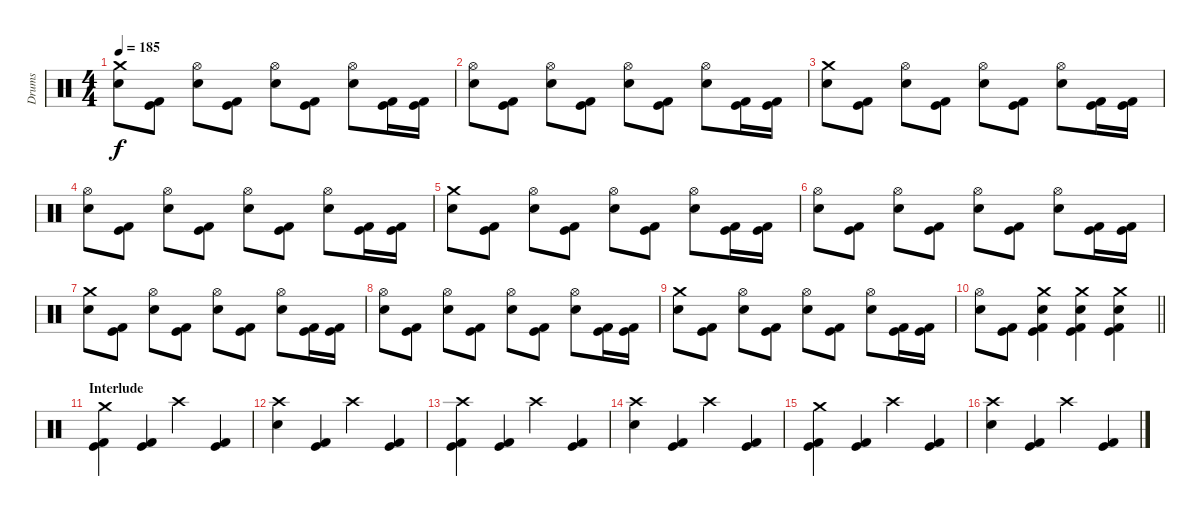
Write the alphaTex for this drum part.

\track ("Drums" "Drums") {instrument percussion}
\staff {score}
\articulation defaults
\ts (4 4)
\tempo 185
\clef neutral
\ks c
("Crash medium (hit)" "Electric Snare (hit)").8{dy f} ("Kick (hit) 2" "Kick (hit)").8 ("Hi-Hat (open)" "Electric Snare (hit)").8 ("Kick (hit) 2" "Kick (hit)").8 ("Hi-Hat (open)" "Electric Snare (hit)").8 ("Kick (hit) 2" "Kick (hit)").8 ("Hi-Hat (open)" "Electric Snare (hit)").8 ("Kick (hit) 2" "Kick (hit)").16 ("Kick (hit) 2" "Kick (hit)").16 |
("Hi-Hat (open)" "Electric Snare (hit)").8 ("Kick (hit) 2" "Kick (hit)").8 ("Hi-Hat (open)" "Electric Snare (hit)").8 ("Kick (hit) 2" "Kick (hit)").8 ("Hi-Hat (open)" "Electric Snare (hit)").8 ("Kick (hit) 2" "Kick (hit)").8 ("Hi-Hat (open)" "Electric Snare (hit)").8 ("Kick (hit) 2" "Kick (hit)").16 ("Kick (hit) 2" "Kick (hit)").16 |
("Crash medium (hit)" "Electric Snare (hit)").8 ("Kick (hit) 2" "Kick (hit)").8 ("Hi-Hat (open)" "Electric Snare (hit)").8 ("Kick (hit) 2" "Kick (hit)").8 ("Hi-Hat (open)" "Electric Snare (hit)").8 ("Kick (hit) 2" "Kick (hit)").8 ("Hi-Hat (open)" "Electric Snare (hit)").8 ("Kick (hit) 2" "Kick (hit)").16 ("Kick (hit) 2" "Kick (hit)").16 |
("Hi-Hat (open)" "Electric Snare (hit)").8 ("Kick (hit) 2" "Kick (hit)").8 ("Hi-Hat (open)" "Electric Snare (hit)").8 ("Kick (hit) 2" "Kick (hit)").8 ("Hi-Hat (open)" "Electric Snare (hit)").8 ("Kick (hit) 2" "Kick (hit)").8 ("Hi-Hat (open)" "Electric Snare (hit)").8 ("Kick (hit) 2" "Kick (hit)").16 ("Kick (hit) 2" "Kick (hit)").16 |
("Crash medium (hit)" "Electric Snare (hit)").8 ("Kick (hit) 2" "Kick (hit)").8 ("Hi-Hat (open)" "Electric Snare (hit)").8 ("Kick (hit) 2" "Kick (hit)").8 ("Hi-Hat (open)" "Electric Snare (hit)").8 ("Kick (hit) 2" "Kick (hit)").8 ("Hi-Hat (open)" "Electric Snare (hit)").8 ("Kick (hit) 2" "Kick (hit)").16 ("Kick (hit) 2" "Kick (hit)").16 |
("Hi-Hat (open)" "Electric Snare (hit)").8 ("Kick (hit) 2" "Kick (hit)").8 ("Hi-Hat (open)" "Electric Snare (hit)").8 ("Kick (hit) 2" "Kick (hit)").8 ("Hi-Hat (open)" "Electric Snare (hit)").8 ("Kick (hit) 2" "Kick (hit)").8 ("Hi-Hat (open)" "Electric Snare (hit)").8 ("Kick (hit) 2" "Kick (hit)").16 ("Kick (hit) 2" "Kick (hit)").16 |
("Crash medium (hit)" "Electric Snare (hit)").8 ("Kick (hit) 2" "Kick (hit)").8 ("Hi-Hat (open)" "Electric Snare (hit)").8 ("Kick (hit) 2" "Kick (hit)").8 ("Hi-Hat (open)" "Electric Snare (hit)").8 ("Kick (hit) 2" "Kick (hit)").8 ("Hi-Hat (open)" "Electric Snare (hit)").8 ("Kick (hit) 2" "Kick (hit)").16 ("Kick (hit) 2" "Kick (hit)").16 |
("Hi-Hat (open)" "Electric Snare (hit)").8 ("Kick (hit) 2" "Kick (hit)").8 ("Hi-Hat (open)" "Electric Snare (hit)").8 ("Kick (hit) 2" "Kick (hit)").8 ("Hi-Hat (open)" "Electric Snare (hit)").8 ("Kick (hit) 2" "Kick (hit)").8 ("Hi-Hat (open)" "Electric Snare (hit)").8 ("Kick (hit) 2" "Kick (hit)").16 ("Kick (hit) 2" "Kick (hit)").16 |
("Crash medium (hit)" "Electric Snare (hit)").8 ("Kick (hit) 2" "Kick (hit)").8 ("Hi-Hat (open)" "Electric Snare (hit)").8 ("Kick (hit) 2" "Kick (hit)").8 ("Hi-Hat (open)" "Electric Snare (hit)").8 ("Kick (hit) 2" "Kick (hit)").8 ("Hi-Hat (open)" "Electric Snare (hit)").8 ("Kick (hit) 2" "Kick (hit)").16 ("Kick (hit) 2" "Kick (hit)").16 |
\barLineRight lightlight
("Hi-Hat (open)" "Electric Snare (hit)").8 ("Kick (hit) 2" "Kick (hit)").8 ("Crash medium (hit)" "Electric Snare (hit)" "Kick (hit) 2" "Kick (hit)").4 ("Crash medium (hit)" "Electric Snare (hit)" "Kick (hit) 2" "Kick (hit)").4 ("Crash medium (hit)" "Electric Snare (hit)" "Kick (hit) 2" "Kick (hit)").4 |
\section ("" "Interlude")
("Crash medium (hit)" "Kick (hit) 2" "Kick (hit)").4 ("Kick (hit) 2" "Kick (hit)").4 "Crash high (hit)".4 ("Kick (hit) 2" "Kick (hit)").4 |
("Crash high (hit)" "Electric Snare (hit)").4 ("Kick (hit) 2" "Kick (hit)").4 "Crash high (hit)".4 ("Kick (hit) 2" "Kick (hit)").4 |
("Crash high (hit)" "Kick (hit) 2" "Kick (hit)").4 ("Kick (hit) 2" "Kick (hit)").4 "Crash high (hit)".4 ("Kick (hit) 2" "Kick (hit)").4 |
("Crash high (hit)" "Electric Snare (hit)").4 ("Kick (hit) 2" "Kick (hit)").4 "Crash high (hit)".4 ("Kick (hit) 2" "Kick (hit)").4 |
("Crash medium (hit)" "Kick (hit) 2" "Kick (hit)").4 ("Kick (hit) 2" "Kick (hit)").4 "Crash high (hit)".4 ("Kick (hit) 2" "Kick (hit)").4 |
("Crash high (hit)" "Electric Snare (hit)").4 ("Kick (hit) 2" "Kick (hit)").4 "Crash high (hit)".4 ("Kick (hit) 2" "Kick (hit)").4
